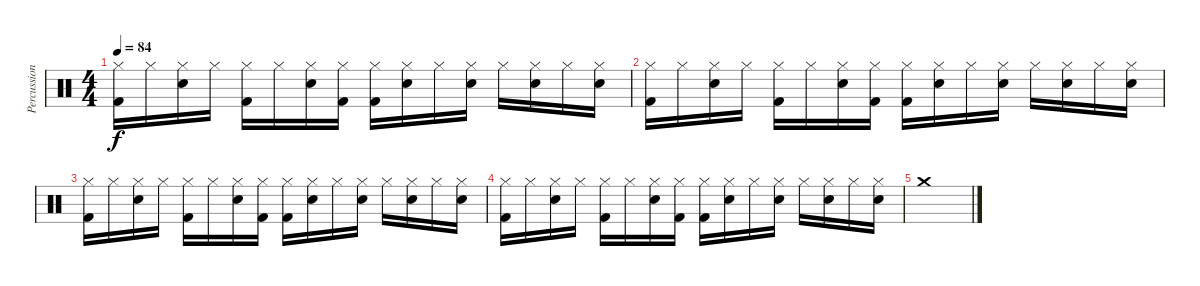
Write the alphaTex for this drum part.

\track ("Percussion" "Percussion") {instrument percussion}
\staff {score}
\articulation defaults
\ts (4 4)
\tempo 84
\clef neutral
\ks c
("Hi-Hat (closed)" "Kick (hit) 2").16{dy f} "Hi-Hat (closed)".16 ("Hi-Hat (closed)" "Snare (hit) 2").16 "Hi-Hat (closed)".16 ("Hi-Hat (closed)" "Kick (hit) 2").16 "Hi-Hat (closed)".16 ("Hi-Hat (closed)" "Snare (hit) 2").16 ("Hi-Hat (closed)" "Kick (hit) 2").16 ("Hi-Hat (closed)" "Kick (hit) 2").16 ("Hi-Hat (closed)" "Snare (hit) 2").16 "Hi-Hat (closed)".16 ("Hi-Hat (closed)" "Snare (hit) 2").16 "Hi-Hat (closed)".16 ("Hi-Hat (closed)" "Snare (hit) 2").16 "Hi-Hat (closed)".16 ("Hi-Hat (closed)" "Snare (hit) 2").16 |
("Hi-Hat (closed)" "Kick (hit) 2").16 "Hi-Hat (closed)".16 ("Hi-Hat (closed)" "Snare (hit) 2").16 "Hi-Hat (closed)".16 ("Hi-Hat (closed)" "Kick (hit) 2").16 "Hi-Hat (closed)".16 ("Hi-Hat (closed)" "Snare (hit) 2").16 ("Hi-Hat (closed)" "Kick (hit) 2").16 ("Hi-Hat (closed)" "Kick (hit) 2").16 ("Hi-Hat (closed)" "Snare (hit) 2").16 "Hi-Hat (closed)".16 ("Hi-Hat (closed)" "Snare (hit) 2").16 "Hi-Hat (closed)".16 ("Hi-Hat (closed)" "Snare (hit) 2").16 "Hi-Hat (closed)".16 ("Hi-Hat (closed)" "Snare (hit) 2").16 |
("Hi-Hat (closed)" "Kick (hit) 2").16 "Hi-Hat (closed)".16 ("Hi-Hat (closed)" "Snare (hit) 2").16 "Hi-Hat (closed)".16 ("Hi-Hat (closed)" "Kick (hit) 2").16 "Hi-Hat (closed)".16 ("Hi-Hat (closed)" "Snare (hit) 2").16 ("Hi-Hat (closed)" "Kick (hit) 2").16 ("Hi-Hat (closed)" "Kick (hit) 2").16 ("Hi-Hat (closed)" "Snare (hit) 2").16 "Hi-Hat (closed)".16 ("Hi-Hat (closed)" "Snare (hit) 2").16 "Hi-Hat (closed)".16 ("Hi-Hat (closed)" "Snare (hit) 2").16 "Hi-Hat (closed)".16 ("Hi-Hat (closed)" "Snare (hit) 2").16 |
("Hi-Hat (closed)" "Kick (hit) 2").16 "Hi-Hat (closed)".16 ("Hi-Hat (closed)" "Snare (hit) 2").16 "Hi-Hat (closed)".16 ("Hi-Hat (closed)" "Kick (hit) 2").16 "Hi-Hat (closed)".16 ("Hi-Hat (closed)" "Snare (hit) 2").16 ("Hi-Hat (closed)" "Kick (hit) 2").16 ("Hi-Hat (closed)" "Kick (hit) 2").16 ("Hi-Hat (closed)" "Snare (hit) 2").16 "Hi-Hat (closed)".16 ("Hi-Hat (closed)" "Snare (hit) 2").16 "Hi-Hat (closed)".16 ("Hi-Hat (closed)" "Snare (hit) 2").16 "Hi-Hat (closed)".16 ("Hi-Hat (closed)" "Snare (hit) 2").16 |
"Crash medium (hit)".1
